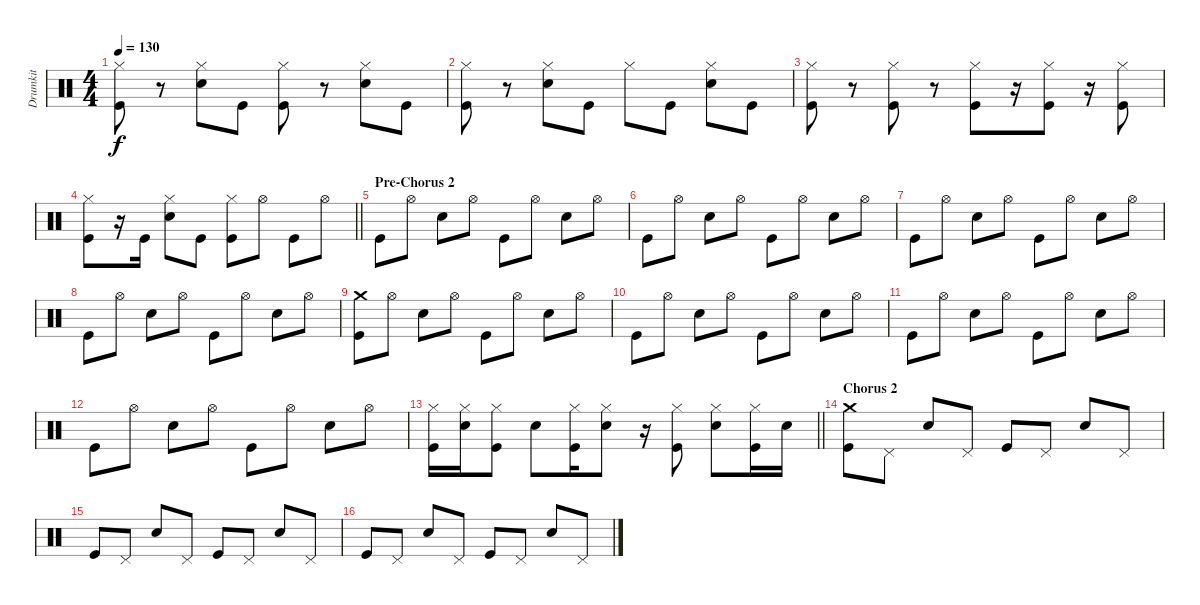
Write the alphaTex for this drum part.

\track ("Drumkit" "Drumkit") {instrument percussion}
\staff {score}
\articulation defaults
\ts (4 4)
\tempo 130
\clef neutral
\ks c
("Kick (hit)" "Hi-Hat (closed)").8{dy f} r.8 ("Snare (hit) 2" "Hi-Hat (closed)").8 "Kick (hit)".8 ("Kick (hit)" "Hi-Hat (closed)").8 r.8 ("Snare (hit) 2" "Hi-Hat (closed)").8 "Kick (hit)".8 |
("Kick (hit)" "Hi-Hat (closed)").8 r.8 ("Snare (hit) 2" "Hi-Hat (closed)").8 "Kick (hit)".8 "Hi-Hat (closed)".8 "Kick (hit)".8 ("Snare (hit) 2" "Hi-Hat (closed)").8 "Kick (hit)".8 |
("Kick (hit)" "Hi-Hat (closed)").8 r.8 ("Kick (hit)" "Hi-Hat (closed)").8 r.8 ("Kick (hit)" "Hi-Hat (closed)").8 r.16 ("Kick (hit)" "Hi-Hat (closed)").8 r.16 ("Kick (hit)" "Hi-Hat (closed)").8 |
\barLineRight lightlight
("Kick (hit)" "Hi-Hat (closed)").8 r.16 "Kick (hit)".16 ("Snare (hit) 2" "Hi-Hat (closed)").8 "Kick (hit)".8 ("Kick (hit)" "Hi-Hat (closed)").8 "Hi-Hat (open)".8 "Kick (hit)".8 "Hi-Hat (open)".8 |
\section ("" "Pre-Chorus 2")
"Kick (hit)".8 "Hi-Hat (open)".8 "Snare (hit) 2".8 "Hi-Hat (open)".8 "Kick (hit)".8 "Hi-Hat (open)".8 "Snare (hit) 2".8 "Hi-Hat (open)".8 |
"Kick (hit)".8 "Hi-Hat (open)".8 "Snare (hit) 2".8 "Hi-Hat (open)".8 "Kick (hit)".8 "Hi-Hat (open)".8 "Snare (hit) 2".8 "Hi-Hat (open)".8 |
"Kick (hit)".8 "Hi-Hat (open)".8 "Snare (hit) 2".8 "Hi-Hat (open)".8 "Kick (hit)".8 "Hi-Hat (open)".8 "Snare (hit) 2".8 "Hi-Hat (open)".8 |
"Kick (hit)".8 "Hi-Hat (open)".8 "Snare (hit) 2".8 "Hi-Hat (open)".8 "Kick (hit)".8 "Hi-Hat (open)".8 "Snare (hit) 2".8 "Hi-Hat (open)".8 |
("Kick (hit)" "Crash medium (hit)").8 "Hi-Hat (open)".8 "Snare (hit) 2".8 "Hi-Hat (open)".8 "Kick (hit)".8 "Hi-Hat (open)".8 "Snare (hit) 2".8 "Hi-Hat (open)".8 |
"Kick (hit)".8 "Hi-Hat (open)".8 "Snare (hit) 2".8 "Hi-Hat (open)".8 "Kick (hit)".8 "Hi-Hat (open)".8 "Snare (hit) 2".8 "Hi-Hat (open)".8 |
"Kick (hit)".8 "Hi-Hat (open)".8 "Snare (hit) 2".8 "Hi-Hat (open)".8 "Kick (hit)".8 "Hi-Hat (open)".8 "Snare (hit) 2".8 "Hi-Hat (open)".8 |
"Kick (hit)".8 "Hi-Hat (open)".8 "Snare (hit) 2".8 "Hi-Hat (open)".8 "Kick (hit)".8 "Hi-Hat (open)".8 "Snare (hit) 2".8 "Hi-Hat (open)".8 |
\barLineRight lightlight
("Kick (hit)" "Hi-Hat (closed)").16 ("Snare (hit) 2" "Hi-Hat (closed)").16 ("Kick (hit)" "Hi-Hat (closed)").8 "Snare (hit) 2".8 ("Kick (hit)" "Hi-Hat (closed)").16 ("Snare (hit) 2" "Hi-Hat (closed)").8 r.16 ("Kick (hit)" "Hi-Hat (closed)").8 ("Snare (hit) 2" "Hi-Hat (closed)").8 ("Kick (hit)" "Hi-Hat (closed)").16 "Snare (hit) 2".16 |
\section ("" "Chorus 2")
("Kick (hit)" "Crash medium (hit)").8 "Pedal Hi-Hat (hit)".8 "Snare (hit) 2".8 "Pedal Hi-Hat (hit)".8 "Kick (hit)".8 "Pedal Hi-Hat (hit)".8 "Snare (hit) 2".8 "Pedal Hi-Hat (hit)".8 |
"Kick (hit)".8 "Pedal Hi-Hat (hit)".8 "Snare (hit) 2".8 "Pedal Hi-Hat (hit)".8 "Kick (hit)".8 "Pedal Hi-Hat (hit)".8 "Snare (hit) 2".8 "Pedal Hi-Hat (hit)".8 |
"Kick (hit)".8 "Pedal Hi-Hat (hit)".8 "Snare (hit) 2".8 "Pedal Hi-Hat (hit)".8 "Kick (hit)".8 "Pedal Hi-Hat (hit)".8 "Snare (hit) 2".8 "Pedal Hi-Hat (hit)".8
